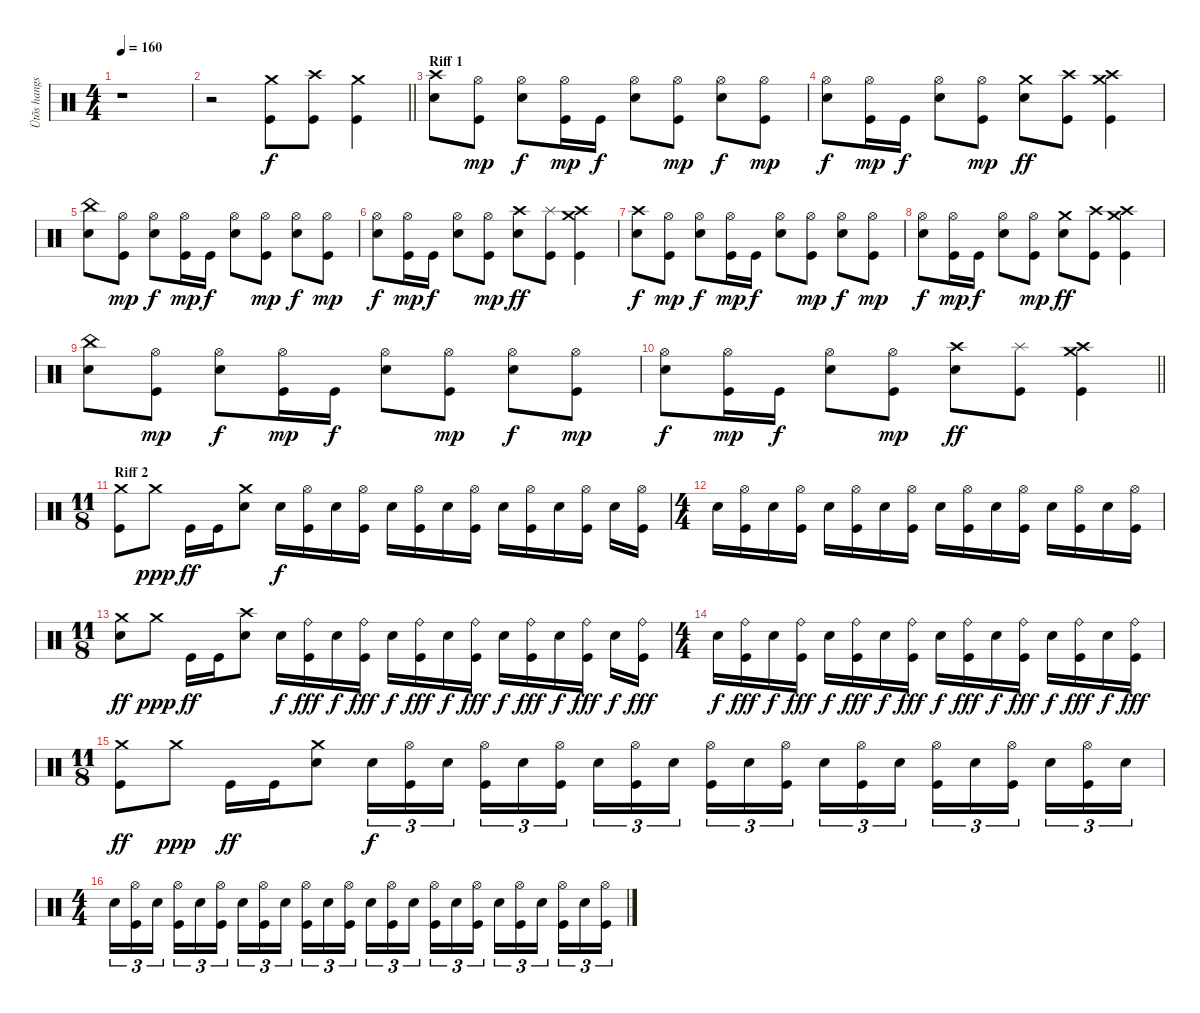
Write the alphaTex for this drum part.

\track ("Ütõs hangszer" "Ütõs hangs") {instrument percussion}
\staff {score}
\articulation defaults
\ts (4 4)
\tempo 160
\clef neutral
\ks c
r.1{dy f} |
\barLineRight lightlight
r.2 ("Crash medium (hit)" "Kick (hit)").8 ("Crash high (hit)" "Kick (hit)").8 ("Crash medium (hit)" "Kick (hit)").4 |
\section ("" "Riff 1")
("Crash high (hit)" "Electric Snare (hit)").8 ("Hi-Hat (open)" "Kick (hit)").8{dy mp} ("Hi-Hat (open)" "Electric Snare (hit)").8{dy f} ("Hi-Hat (open)" "Kick (hit)").16{dy mp} "Kick (hit)".16{dy f} ("Hi-Hat (open)" "Electric Snare (hit)").8 ("Hi-Hat (open)" "Kick (hit)").8{dy mp} ("Hi-Hat (open)" "Electric Snare (hit)").8{dy f} ("Hi-Hat (open)" "Kick (hit)").8{dy mp} |
("Hi-Hat (open)" "Electric Snare (hit)").8{dy f} ("Hi-Hat (open)" "Kick (hit)").16{dy mp} "Kick (hit)".16{dy f} ("Hi-Hat (open)" "Electric Snare (hit)").8 ("Hi-Hat (open)" "Kick (hit)").8{dy mp} ("Crash medium (hit)" "Electric Snare (hit)").8{dy ff} ("Crash high (hit)" "Kick (hit)").8 ("Crash medium (hit)" "Crash high (hit)" "Kick (hit)").4 |
("China (hit)" "Electric Snare (hit)").8 ("Hi-Hat (open)" "Kick (hit)").8{dy mp} ("Hi-Hat (open)" "Electric Snare (hit)").8{dy f} ("Hi-Hat (open)" "Kick (hit)").16{dy mp} "Kick (hit)".16{dy f} ("Hi-Hat (open)" "Electric Snare (hit)").8 ("Hi-Hat (open)" "Kick (hit)").8{dy mp} ("Hi-Hat (open)" "Electric Snare (hit)").8{dy f} ("Hi-Hat (open)" "Kick (hit)").8{dy mp} |
("Hi-Hat (open)" "Electric Snare (hit)").8{dy f} ("Hi-Hat (open)" "Kick (hit)").16{dy mp} "Kick (hit)".16{dy f} ("Hi-Hat (open)" "Electric Snare (hit)").8 ("Hi-Hat (open)" "Kick (hit)").8{dy mp} ("Crash high (hit)" "Electric Snare (hit)").8{dy ff} ("Splash (hit)" "Kick (hit)").8 ("Crash medium (hit)" "Crash high (hit)" "Kick (hit)").4 |
("Crash high (hit)" "Electric Snare (hit)").8{dy f} ("Hi-Hat (open)" "Kick (hit)").8{dy mp} ("Hi-Hat (open)" "Electric Snare (hit)").8{dy f} ("Hi-Hat (open)" "Kick (hit)").16{dy mp} "Kick (hit)".16{dy f} ("Hi-Hat (open)" "Electric Snare (hit)").8 ("Hi-Hat (open)" "Kick (hit)").8{dy mp} ("Hi-Hat (open)" "Electric Snare (hit)").8{dy f} ("Hi-Hat (open)" "Kick (hit)").8{dy mp} |
("Hi-Hat (open)" "Electric Snare (hit)").8{dy f} ("Hi-Hat (open)" "Kick (hit)").16{dy mp} "Kick (hit)".16{dy f} ("Hi-Hat (open)" "Electric Snare (hit)").8 ("Hi-Hat (open)" "Kick (hit)").8{dy mp} ("Crash medium (hit)" "Electric Snare (hit)").8{dy ff} ("Crash high (hit)" "Kick (hit)").8 ("Crash medium (hit)" "Crash high (hit)" "Kick (hit)").4 |
("China (hit)" "Electric Snare (hit)").8 ("Hi-Hat (open)" "Kick (hit)").8{dy mp} ("Hi-Hat (open)" "Electric Snare (hit)").8{dy f} ("Hi-Hat (open)" "Kick (hit)").16{dy mp} "Kick (hit)".16{dy f} ("Hi-Hat (open)" "Electric Snare (hit)").8 ("Hi-Hat (open)" "Kick (hit)").8{dy mp} ("Hi-Hat (open)" "Electric Snare (hit)").8{dy f} ("Hi-Hat (open)" "Kick (hit)").8{dy mp} |
\barLineRight lightlight
("Hi-Hat (open)" "Electric Snare (hit)").8{dy f} ("Hi-Hat (open)" "Kick (hit)").16{dy mp} "Kick (hit)".16{dy f} ("Hi-Hat (open)" "Electric Snare (hit)").8 ("Hi-Hat (open)" "Kick (hit)").8{dy mp} ("Crash high (hit)" "Electric Snare (hit)").8{dy ff} ("Splash (hit)" "Kick (hit)").8 ("Crash medium (hit)" "Crash high (hit)" "Kick (hit)").4 |
\ts (11 8)
\section ("" "Riff 2")
("Crash medium (hit)" "Kick (hit)").8 "Crash medium (hit)".8{dy ppp} "Kick (hit)".16{dy ff} "Kick (hit)".16 ("Crash medium (hit)" "Electric Snare (hit)").8 "Electric Snare (hit)".16{dy f} ("Hi-Hat (open)" "Kick (hit)").16 "Electric Snare (hit)".16 ("Hi-Hat (open)" "Kick (hit)").16 "Electric Snare (hit)".16 ("Hi-Hat (open)" "Kick (hit)").16 "Electric Snare (hit)".16 ("Hi-Hat (open)" "Kick (hit)").16 "Electric Snare (hit)".16 ("Hi-Hat (open)" "Kick (hit)").16 "Electric Snare (hit)".16 ("Hi-Hat (open)" "Kick (hit)").16 "Electric Snare (hit)".16 ("Hi-Hat (open)" "Kick (hit)").16 |
\ts (4 4)
"Electric Snare (hit)".16 ("Hi-Hat (open)" "Kick (hit)").16 "Electric Snare (hit)".16 ("Hi-Hat (open)" "Kick (hit)").16 "Electric Snare (hit)".16 ("Hi-Hat (open)" "Kick (hit)").16 "Electric Snare (hit)".16 ("Hi-Hat (open)" "Kick (hit)").16 "Electric Snare (hit)".16 ("Hi-Hat (open)" "Kick (hit)").16 "Electric Snare (hit)".16 ("Hi-Hat (open)" "Kick (hit)").16 "Electric Snare (hit)".16 ("Hi-Hat (open)" "Kick (hit)").16 "Electric Snare (hit)".16 ("Hi-Hat (open)" "Kick (hit)").16 |
\ts (11 8)
("Crash medium (hit)" "Electric Snare (hit)").8{dy ff} "Crash medium (hit)".8{dy ppp} "Kick (hit)".16{dy ff} "Kick (hit)".16 ("Crash high (hit)" "Electric Snare (hit)").8 "Electric Snare (hit)".16{dy f} ("Ride (bell)" "Kick (hit)").16{dy fff} "Electric Snare (hit)".16{dy f} ("Ride (bell)" "Kick (hit)").16{dy fff} "Electric Snare (hit)".16{dy f} ("Ride (bell)" "Kick (hit)").16{dy fff} "Electric Snare (hit)".16{dy f} ("Ride (bell)" "Kick (hit)").16{dy fff} "Electric Snare (hit)".16{dy f} ("Ride (bell)" "Kick (hit)").16{dy fff} "Electric Snare (hit)".16{dy f} ("Ride (bell)" "Kick (hit)").16{dy fff} "Electric Snare (hit)".16{dy f} ("Ride (bell)" "Kick (hit)").16{dy fff} |
\ts (4 4)
"Electric Snare (hit)".16{dy f} ("Ride (bell)" "Kick (hit)").16{dy fff} "Electric Snare (hit)".16{dy f} ("Ride (bell)" "Kick (hit)").16{dy fff} "Electric Snare (hit)".16{dy f} ("Ride (bell)" "Kick (hit)").16{dy fff} "Electric Snare (hit)".16{dy f} ("Ride (bell)" "Kick (hit)").16{dy fff} "Electric Snare (hit)".16{dy f} ("Ride (bell)" "Kick (hit)").16{dy fff} "Electric Snare (hit)".16{dy f} ("Ride (bell)" "Kick (hit)").16{dy fff} "Electric Snare (hit)".16{dy f} ("Ride (bell)" "Kick (hit)").16{dy fff} "Electric Snare (hit)".16{dy f} ("Ride (bell)" "Kick (hit)").16{dy fff} |
\ts (11 8)
("Crash medium (hit)" "Kick (hit)").8{dy ff} "Crash medium (hit)".8{dy ppp} "Kick (hit)".16{dy ff} "Kick (hit)".16 ("Crash medium (hit)" "Electric Snare (hit)").8 "Electric Snare (hit)".16{tu (3 2) dy f} ("Hi-Hat (open)" "Kick (hit)").16{tu (3 2)} "Electric Snare (hit)".16{tu (3 2)} ("Hi-Hat (open)" "Kick (hit)").16{tu (3 2)} "Electric Snare (hit)".16{tu (3 2)} ("Hi-Hat (open)" "Kick (hit)").16{tu (3 2)} "Electric Snare (hit)".16{tu (3 2)} ("Hi-Hat (open)" "Kick (hit)").16{tu (3 2)} "Electric Snare (hit)".16{tu (3 2)} ("Hi-Hat (open)" "Kick (hit)").16{tu (3 2)} "Electric Snare (hit)".16{tu (3 2)} ("Hi-Hat (open)" "Kick (hit)").16{tu (3 2)} "Electric Snare (hit)".16{tu (3 2)} ("Hi-Hat (open)" "Kick (hit)").16{tu (3 2)} "Electric Snare (hit)".16{tu (3 2)} ("Hi-Hat (open)" "Kick (hit)").16{tu (3 2)} "Electric Snare (hit)".16{tu (3 2)} ("Hi-Hat (open)" "Kick (hit)").16{tu (3 2)} "Electric Snare (hit)".16{tu (3 2)} ("Hi-Hat (open)" "Kick (hit)").16{tu (3 2)} "Electric Snare (hit)".16{tu (3 2)} |
\ts (4 4)
"Electric Snare (hit)".16{tu (3 2)} ("Hi-Hat (open)" "Kick (hit)").16{tu (3 2)} "Electric Snare (hit)".16{tu (3 2) beam splitsecondary} ("Hi-Hat (open)" "Kick (hit)").16{tu (3 2)} "Electric Snare (hit)".16{tu (3 2)} ("Hi-Hat (open)" "Kick (hit)").16{tu (3 2)} "Electric Snare (hit)".16{tu (3 2)} ("Hi-Hat (open)" "Kick (hit)").16{tu (3 2)} "Electric Snare (hit)".16{tu (3 2) beam splitsecondary} ("Hi-Hat (open)" "Kick (hit)").16{tu (3 2)} "Electric Snare (hit)".16{tu (3 2)} ("Hi-Hat (open)" "Kick (hit)").16{tu (3 2)} "Electric Snare (hit)".16{tu (3 2)} ("Hi-Hat (open)" "Kick (hit)").16{tu (3 2)} "Electric Snare (hit)".16{tu (3 2) beam splitsecondary} ("Hi-Hat (open)" "Kick (hit)").16{tu (3 2)} "Electric Snare (hit)".16{tu (3 2)} ("Hi-Hat (open)" "Kick (hit)").16{tu (3 2)} "Electric Snare (hit)".16{tu (3 2)} ("Hi-Hat (open)" "Kick (hit)").16{tu (3 2)} "Electric Snare (hit)".16{tu (3 2) beam splitsecondary} ("Hi-Hat (open)" "Kick (hit)").16{tu (3 2)} "Electric Snare (hit)".16{tu (3 2)} ("Hi-Hat (open)" "Kick (hit)").16{tu (3 2)}
